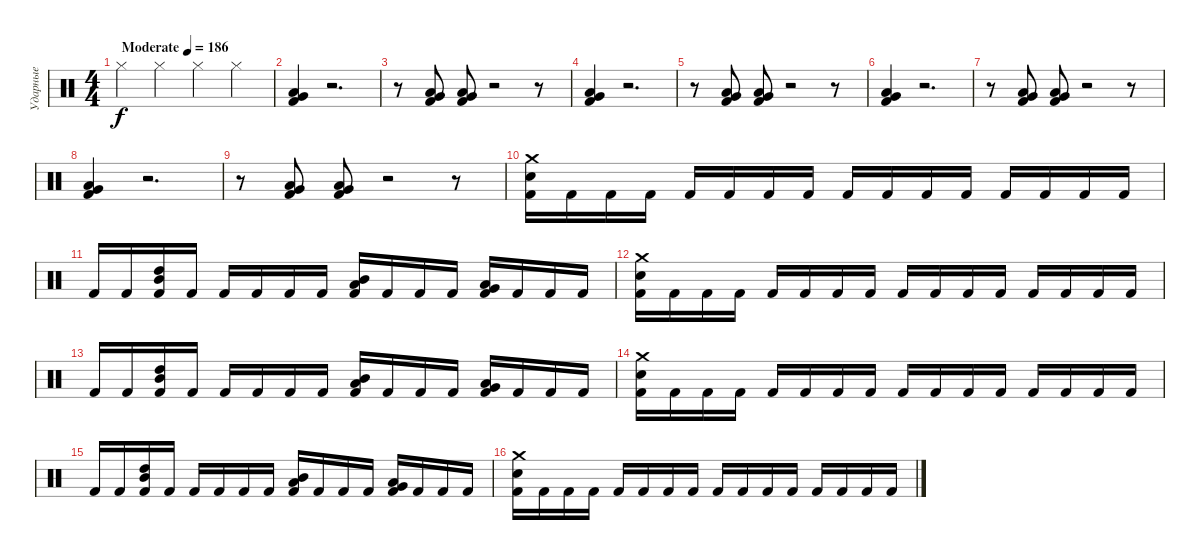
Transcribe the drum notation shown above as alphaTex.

\track ("Ударные" "Ударные") {instrument percussion}
\staff {score}
\articulation defaults
\ts (4 4)
\tempo (186 "Moderate")
\clef neutral
\ks c "Hi-Hat (closed)".4{dy f} "Hi-Hat (closed)".4 "Hi-Hat (closed)".4 "Hi-Hat (closed)".4
|
("Kick (hit) 2" "Very Low Tom (hit)" "Low Floor Tom (hit)").4 r.2{d} |
r.8 ("Kick (hit) 2" "Very Low Tom (hit)" "Low Floor Tom (hit)").8 ("Kick (hit) 2" "Very Low Tom (hit)" "Low Floor Tom (hit)").8 r.2 r.8 |
("Kick (hit) 2" "Very Low Tom (hit)" "Low Floor Tom (hit)").4 r.2{d} |
r.8 ("Kick (hit) 2" "Very Low Tom (hit)" "Low Floor Tom (hit)").8 ("Kick (hit) 2" "Very Low Tom (hit)" "Low Floor Tom (hit)").8 r.2 r.8 |
("Kick (hit) 2" "Very Low Tom (hit)" "Low Floor Tom (hit)").4 r.2{d} |
r.8 ("Kick (hit) 2" "Very Low Tom (hit)" "Low Floor Tom (hit)").8 ("Kick (hit) 2" "Very Low Tom (hit)" "Low Floor Tom (hit)").8 r.2 r.8 |
("Kick (hit) 2" "Very Low Tom (hit)" "Low Floor Tom (hit)").4 r.2{d} |
r.8 ("Kick (hit) 2" "Very Low Tom (hit)" "Low Floor Tom (hit)").8 ("Kick (hit) 2" "Very Low Tom (hit)" "Low Floor Tom (hit)").8 r.2 r.8 |
("Kick (hit) 2" "Snare (hit) 2" "Crash medium (hit)").16 "Kick (hit) 2".16 "Kick (hit) 2".16 "Kick (hit) 2".16 "Kick (hit) 2".16 "Kick (hit) 2".16 "Kick (hit) 2".16 "Kick (hit) 2".16 "Kick (hit) 2".16 "Kick (hit) 2".16 "Kick (hit) 2".16 "Kick (hit) 2".16 "Kick (hit) 2".16 "Kick (hit) 2".16 "Kick (hit) 2".16 "Kick (hit) 2".16 |
"Kick (hit) 2".16 "Kick (hit) 2".16 ("Kick (hit) 2" "High Tom (hit)" "Mid Tom (hit)").16 "Kick (hit) 2".16 "Kick (hit) 2".16 "Kick (hit) 2".16 "Kick (hit) 2".16 "Kick (hit) 2".16 ("Kick (hit) 2" "Mid Tom (hit)" "Low Tom (hit)").16 "Kick (hit) 2".16 "Kick (hit) 2".16 "Kick (hit) 2".16 ("Kick (hit) 2" "Low Tom (hit)" "Very Low Tom (hit)").16 "Kick (hit) 2".16 "Kick (hit) 2".16 "Kick (hit) 2".16 |
("Kick (hit) 2" "Snare (hit) 2" "Crash medium (hit)").16 "Kick (hit) 2".16 "Kick (hit) 2".16 "Kick (hit) 2".16 "Kick (hit) 2".16 "Kick (hit) 2".16 "Kick (hit) 2".16 "Kick (hit) 2".16 "Kick (hit) 2".16 "Kick (hit) 2".16 "Kick (hit) 2".16 "Kick (hit) 2".16 "Kick (hit) 2".16 "Kick (hit) 2".16 "Kick (hit) 2".16 "Kick (hit) 2".16 |
"Kick (hit) 2".16 "Kick (hit) 2".16 ("Kick (hit) 2" "High Tom (hit)" "Mid Tom (hit)").16 "Kick (hit) 2".16 "Kick (hit) 2".16 "Kick (hit) 2".16 "Kick (hit) 2".16 "Kick (hit) 2".16 ("Kick (hit) 2" "Mid Tom (hit)" "Low Tom (hit)").16 "Kick (hit) 2".16 "Kick (hit) 2".16 "Kick (hit) 2".16 ("Kick (hit) 2" "Low Tom (hit)" "Very Low Tom (hit)").16 "Kick (hit) 2".16 "Kick (hit) 2".16 "Kick (hit) 2".16 |
("Kick (hit) 2" "Snare (hit) 2" "Crash medium (hit)").16 "Kick (hit) 2".16 "Kick (hit) 2".16 "Kick (hit) 2".16 "Kick (hit) 2".16 "Kick (hit) 2".16 "Kick (hit) 2".16 "Kick (hit) 2".16 "Kick (hit) 2".16 "Kick (hit) 2".16 "Kick (hit) 2".16 "Kick (hit) 2".16 "Kick (hit) 2".16 "Kick (hit) 2".16 "Kick (hit) 2".16 "Kick (hit) 2".16 |
"Kick (hit) 2".16 "Kick (hit) 2".16 ("Kick (hit) 2" "High Tom (hit)" "Mid Tom (hit)").16 "Kick (hit) 2".16 "Kick (hit) 2".16 "Kick (hit) 2".16 "Kick (hit) 2".16 "Kick (hit) 2".16 ("Kick (hit) 2" "Mid Tom (hit)" "Low Tom (hit)").16 "Kick (hit) 2".16 "Kick (hit) 2".16 "Kick (hit) 2".16 ("Kick (hit) 2" "Low Tom (hit)" "Very Low Tom (hit)").16 "Kick (hit) 2".16 "Kick (hit) 2".16 "Kick (hit) 2".16 |
("Kick (hit) 2" "Snare (hit) 2" "Crash medium (hit)").16 "Kick (hit) 2".16 "Kick (hit) 2".16 "Kick (hit) 2".16 "Kick (hit) 2".16 "Kick (hit) 2".16 "Kick (hit) 2".16 "Kick (hit) 2".16 "Kick (hit) 2".16 "Kick (hit) 2".16 "Kick (hit) 2".16 "Kick (hit) 2".16 "Kick (hit) 2".16 "Kick (hit) 2".16 "Kick (hit) 2".16 "Kick (hit) 2".16
